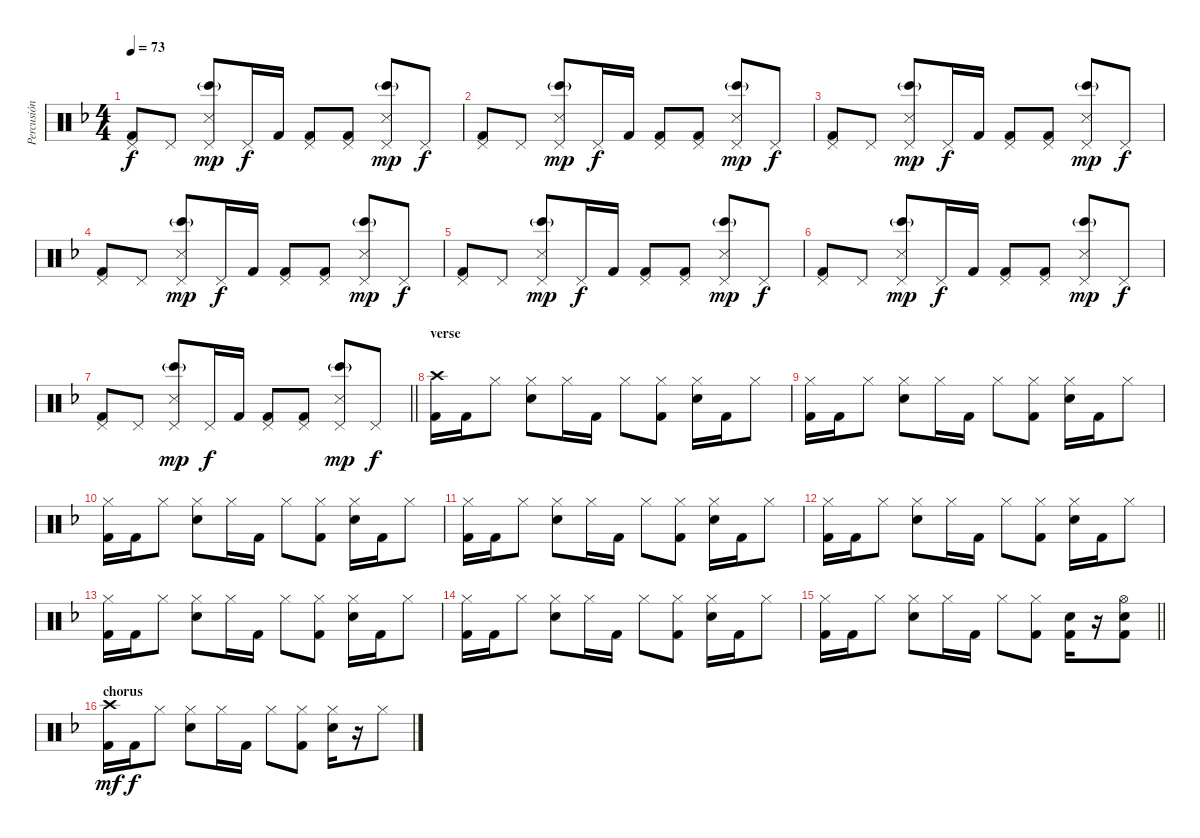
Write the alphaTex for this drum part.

\track ("Percusión" "Percusión") {instrument percussion}
\staff {score}
\articulation defaults
\ts (4 4)
\tempo 73
\clef neutral
\ks f
("Pedal Hi-Hat (hit)" "Kick (hit) 2").8{dy f} "Pedal Hi-Hat (hit)".8 ("Pedal Hi-Hat (hit)" "Bongo High (hit)"{g} "Snare (side stick) 3").8{dy mp} "Pedal Hi-Hat (hit)".16{dy f} "Kick (hit) 2".16 ("Pedal Hi-Hat (hit)" "Kick (hit) 2").8 ("Pedal Hi-Hat (hit)" "Kick (hit) 2").8 ("Pedal Hi-Hat (hit)" "Bongo High (hit)"{g} "Snare (side stick) 3").8{dy mp} "Pedal Hi-Hat (hit)".8{dy f} |
("Pedal Hi-Hat (hit)" "Kick (hit) 2").8 "Pedal Hi-Hat (hit)".8 ("Pedal Hi-Hat (hit)" "Bongo High (hit)"{g} "Snare (side stick) 3").8{dy mp} "Pedal Hi-Hat (hit)".16{dy f} "Kick (hit) 2".16 ("Pedal Hi-Hat (hit)" "Kick (hit) 2").8 ("Pedal Hi-Hat (hit)" "Kick (hit) 2").8 ("Pedal Hi-Hat (hit)" "Bongo High (hit)"{g} "Snare (side stick) 3").8{dy mp} "Pedal Hi-Hat (hit)".8{dy f} |
("Pedal Hi-Hat (hit)" "Kick (hit) 2").8 "Pedal Hi-Hat (hit)".8 ("Pedal Hi-Hat (hit)" "Bongo High (hit)"{g} "Snare (side stick) 3").8{dy mp} "Pedal Hi-Hat (hit)".16{dy f} "Kick (hit) 2".16 ("Pedal Hi-Hat (hit)" "Kick (hit) 2").8 ("Pedal Hi-Hat (hit)" "Kick (hit) 2").8 ("Pedal Hi-Hat (hit)" "Bongo High (hit)"{g} "Snare (side stick) 3").8{dy mp} "Pedal Hi-Hat (hit)".8{dy f} |
("Pedal Hi-Hat (hit)" "Kick (hit) 2").8 "Pedal Hi-Hat (hit)".8 ("Pedal Hi-Hat (hit)" "Bongo High (hit)"{g} "Snare (side stick) 3").8{dy mp} "Pedal Hi-Hat (hit)".16{dy f} "Kick (hit) 2".16 ("Pedal Hi-Hat (hit)" "Kick (hit) 2").8 ("Pedal Hi-Hat (hit)" "Kick (hit) 2").8 ("Pedal Hi-Hat (hit)" "Bongo High (hit)"{g} "Snare (side stick) 3").8{dy mp} "Pedal Hi-Hat (hit)".8{dy f} |
("Pedal Hi-Hat (hit)" "Kick (hit) 2").8 "Pedal Hi-Hat (hit)".8 ("Pedal Hi-Hat (hit)" "Bongo High (hit)"{g} "Snare (side stick) 3").8{dy mp} "Pedal Hi-Hat (hit)".16{dy f} "Kick (hit) 2".16 ("Pedal Hi-Hat (hit)" "Kick (hit) 2").8 ("Pedal Hi-Hat (hit)" "Kick (hit) 2").8 ("Pedal Hi-Hat (hit)" "Bongo High (hit)"{g} "Snare (side stick) 3").8{dy mp} "Pedal Hi-Hat (hit)".8{dy f} |
("Pedal Hi-Hat (hit)" "Kick (hit) 2").8 "Pedal Hi-Hat (hit)".8 ("Pedal Hi-Hat (hit)" "Bongo High (hit)"{g} "Snare (side stick) 3").8{dy mp} "Pedal Hi-Hat (hit)".16{dy f} "Kick (hit) 2".16 ("Pedal Hi-Hat (hit)" "Kick (hit) 2").8 ("Pedal Hi-Hat (hit)" "Kick (hit) 2").8 ("Pedal Hi-Hat (hit)" "Bongo High (hit)"{g} "Snare (side stick) 3").8{dy mp} "Pedal Hi-Hat (hit)".8{dy f} |
\barLineRight lightlight
("Pedal Hi-Hat (hit)" "Kick (hit) 2").8 "Pedal Hi-Hat (hit)".8 ("Pedal Hi-Hat (hit)" "Bongo High (hit)"{g} "Snare (side stick) 3").8{dy mp} "Pedal Hi-Hat (hit)".16{dy f} "Kick (hit) 2".16 ("Pedal Hi-Hat (hit)" "Kick (hit) 2").8 ("Pedal Hi-Hat (hit)" "Kick (hit) 2").8 ("Pedal Hi-Hat (hit)" "Bongo High (hit)"{g} "Snare (side stick) 3").8{dy mp} "Pedal Hi-Hat (hit)".8{dy f} |
\section ("" "verse")
("Crash high (hit)" "Kick (hit) 2").16 "Kick (hit) 2".16 "Hi-Hat (closed)".8 ("Hi-Hat (closed)" "Snare (hit) 2").8 "Hi-Hat (closed)".16 "Kick (hit) 2".16 "Hi-Hat (closed)".8 ("Hi-Hat (closed)" "Kick (hit) 2").8 ("Hi-Hat (closed)" "Snare (hit) 2").16 "Kick (hit) 2".16 "Hi-Hat (closed)".8 |
("Hi-Hat (closed)" "Kick (hit) 2").16 "Kick (hit) 2".16 "Hi-Hat (closed)".8 ("Hi-Hat (closed)" "Snare (hit) 2").8 "Hi-Hat (closed)".16 "Kick (hit) 2".16 "Hi-Hat (closed)".8 ("Hi-Hat (closed)" "Kick (hit) 2").8 ("Hi-Hat (closed)" "Snare (hit) 2").16 "Kick (hit) 2".16 "Hi-Hat (closed)".8 |
("Hi-Hat (closed)" "Kick (hit) 2").16 "Kick (hit) 2".16 "Hi-Hat (closed)".8 ("Hi-Hat (closed)" "Snare (hit) 2").8 "Hi-Hat (closed)".16 "Kick (hit) 2".16 "Hi-Hat (closed)".8 ("Hi-Hat (closed)" "Kick (hit) 2").8 ("Hi-Hat (closed)" "Snare (hit) 2").16 "Kick (hit) 2".16 "Hi-Hat (closed)".8 |
("Hi-Hat (closed)" "Kick (hit) 2").16 "Kick (hit) 2".16 "Hi-Hat (closed)".8 ("Hi-Hat (closed)" "Snare (hit) 2").8 "Hi-Hat (closed)".16 "Kick (hit) 2".16 "Hi-Hat (closed)".8 ("Hi-Hat (closed)" "Kick (hit) 2").8 ("Hi-Hat (closed)" "Snare (hit) 2").16 "Kick (hit) 2".16 "Hi-Hat (closed)".8 |
("Hi-Hat (closed)" "Kick (hit) 2").16 "Kick (hit) 2".16 "Hi-Hat (closed)".8 ("Hi-Hat (closed)" "Snare (hit) 2").8 "Hi-Hat (closed)".16 "Kick (hit) 2".16 "Hi-Hat (closed)".8 ("Hi-Hat (closed)" "Kick (hit) 2").8 ("Hi-Hat (closed)" "Snare (hit) 2").16 "Kick (hit) 2".16 "Hi-Hat (closed)".8 |
("Hi-Hat (closed)" "Kick (hit) 2").16 "Kick (hit) 2".16 "Hi-Hat (closed)".8 ("Hi-Hat (closed)" "Snare (hit) 2").8 "Hi-Hat (closed)".16 "Kick (hit) 2".16 "Hi-Hat (closed)".8 ("Hi-Hat (closed)" "Kick (hit) 2").8 ("Hi-Hat (closed)" "Snare (hit) 2").16 "Kick (hit) 2".16 "Hi-Hat (closed)".8 |
("Hi-Hat (closed)" "Kick (hit) 2").16 "Kick (hit) 2".16 "Hi-Hat (closed)".8 ("Hi-Hat (closed)" "Snare (hit) 2").8 "Hi-Hat (closed)".16 "Kick (hit) 2".16 "Hi-Hat (closed)".8 ("Hi-Hat (closed)" "Kick (hit) 2").8 ("Hi-Hat (closed)" "Snare (hit) 2").16 "Kick (hit) 2".16 "Hi-Hat (closed)".8 |
\barLineRight lightlight
("Hi-Hat (closed)" "Kick (hit) 2").16 "Kick (hit) 2".16 "Hi-Hat (closed)".8 ("Hi-Hat (closed)" "Snare (hit) 2").8 "Hi-Hat (closed)".16 "Kick (hit) 2".16 "Hi-Hat (closed)".8 ("Hi-Hat (closed)" "Kick (hit) 2").8 ("Snare (hit) 2" "Kick (hit) 2").16 r.16 ("Hi-Hat (open)" "Snare (hit) 2" "Kick (hit) 2").8 |
\section ("" "chorus")
("Crash high (hit)" "Kick (hit) 2").16{dy mf} "Kick (hit) 2".16{dy f} "Hi-Hat (closed)".8 ("Hi-Hat (closed)" "Snare (hit) 2").8 "Hi-Hat (closed)".16 "Kick (hit) 2".16 "Hi-Hat (closed)".8 ("Hi-Hat (closed)" "Kick (hit) 2").8 ("Hi-Hat (closed)" "Snare (hit) 2").16 r.16 "Hi-Hat (closed)".8
